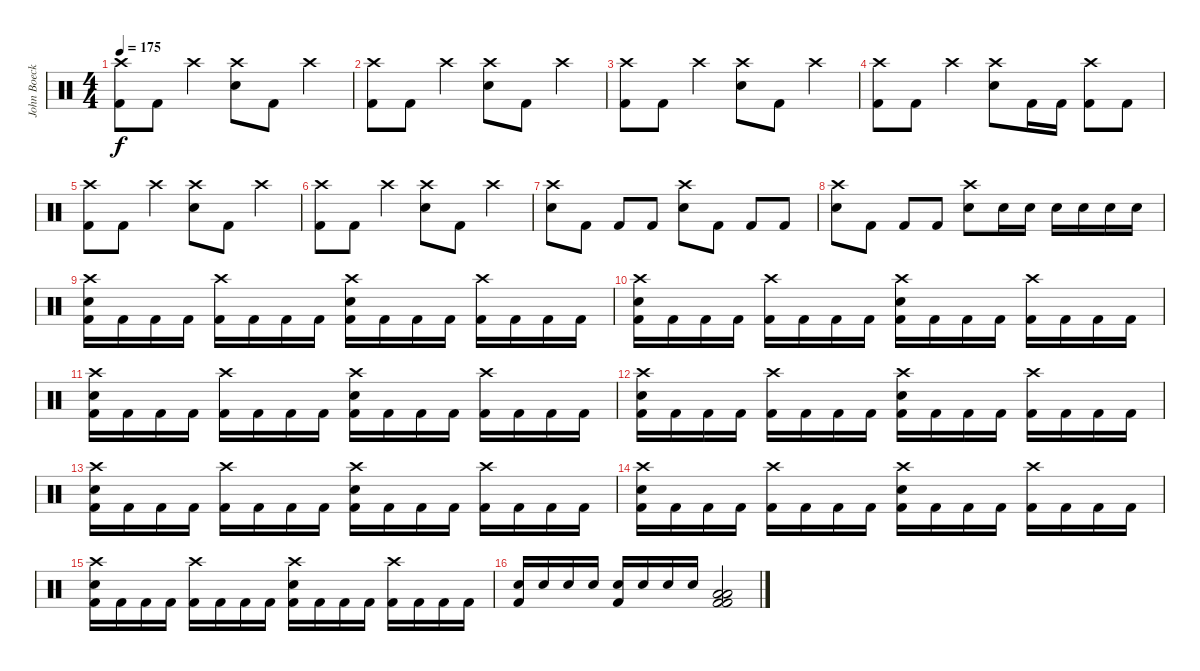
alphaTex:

\track ("John Boecklin (Drums)" "John Boeck") {instrument percussion}
\staff {score}
\articulation defaults
\ts (4 4)
\tempo 175
\clef neutral
\ks c
("Crash high (hit)" "Kick (hit) 2").8{dy f} "Kick (hit) 2".8 "Crash high (hit)".4 ("Crash high (hit)" "Snare (hit) 2").8 "Kick (hit) 2".8 "Crash high (hit)".4 |
("Crash high (hit)" "Kick (hit) 2").8 "Kick (hit) 2".8 "Crash high (hit)".4 ("Crash high (hit)" "Snare (hit) 2").8 "Kick (hit) 2".8 "Crash high (hit)".4 |
("Crash high (hit)" "Kick (hit) 2").8 "Kick (hit) 2".8 "Crash high (hit)".4 ("Crash high (hit)" "Snare (hit) 2").8 "Kick (hit) 2".8 "Crash high (hit)".4 |
("Crash high (hit)" "Kick (hit) 2").8 "Kick (hit) 2".8 "Crash high (hit)".4 ("Crash high (hit)" "Snare (hit) 2").8 "Kick (hit) 2".16 "Kick (hit) 2".16 ("Crash high (hit)" "Kick (hit) 2").8 "Kick (hit) 2".8 |
("Crash high (hit)" "Kick (hit) 2").8 "Kick (hit) 2".8 "Crash high (hit)".4 ("Crash high (hit)" "Snare (hit) 2").8 "Kick (hit) 2".8 "Crash high (hit)".4 |
("Crash high (hit)" "Kick (hit) 2").8 "Kick (hit) 2".8 "Crash high (hit)".4 ("Crash high (hit)" "Snare (hit) 2").8 "Kick (hit) 2".8 "Crash high (hit)".4 |
("Crash high (hit)" "Snare (hit) 2").8 "Kick (hit) 2".8 "Kick (hit) 2".8 "Kick (hit) 2".8 ("Crash high (hit)" "Snare (hit) 2").8 "Kick (hit) 2".8 "Kick (hit) 2".8 "Kick (hit) 2".8 |
("Crash high (hit)" "Snare (hit) 2").8 "Kick (hit) 2".8 "Kick (hit) 2".8 "Kick (hit) 2".8 ("Crash high (hit)" "Snare (hit) 2").8 "Snare (hit) 2".16 "Snare (hit) 2".16 "Snare (hit) 2".16 "Snare (hit) 2".16 "Snare (hit) 2".16 "Snare (hit) 2".16 |
("Crash high (hit)" "Snare (hit) 2" "Kick (hit) 2").16 "Kick (hit) 2".16 "Kick (hit) 2".16 "Kick (hit) 2".16 ("Crash high (hit)" "Kick (hit) 2").16 "Kick (hit) 2".16 "Kick (hit) 2".16 "Kick (hit) 2".16 ("Crash high (hit)" "Snare (hit) 2" "Kick (hit) 2").16 "Kick (hit) 2".16 "Kick (hit) 2".16 "Kick (hit) 2".16 ("Crash high (hit)" "Kick (hit) 2").16 "Kick (hit) 2".16 "Kick (hit) 2".16 "Kick (hit) 2".16 |
("Crash high (hit)" "Snare (hit) 2" "Kick (hit) 2").16 "Kick (hit) 2".16 "Kick (hit) 2".16 "Kick (hit) 2".16 ("Crash high (hit)" "Kick (hit) 2").16 "Kick (hit) 2".16 "Kick (hit) 2".16 "Kick (hit) 2".16 ("Crash high (hit)" "Snare (hit) 2" "Kick (hit) 2").16 "Kick (hit) 2".16 "Kick (hit) 2".16 "Kick (hit) 2".16 ("Crash high (hit)" "Kick (hit) 2").16 "Kick (hit) 2".16 "Kick (hit) 2".16 "Kick (hit) 2".16 |
("Crash high (hit)" "Snare (hit) 2" "Kick (hit) 2").16 "Kick (hit) 2".16 "Kick (hit) 2".16 "Kick (hit) 2".16 ("Crash high (hit)" "Kick (hit) 2").16 "Kick (hit) 2".16 "Kick (hit) 2".16 "Kick (hit) 2".16 ("Crash high (hit)" "Snare (hit) 2" "Kick (hit) 2").16 "Kick (hit) 2".16 "Kick (hit) 2".16 "Kick (hit) 2".16 ("Crash high (hit)" "Kick (hit) 2").16 "Kick (hit) 2".16 "Kick (hit) 2".16 "Kick (hit) 2".16 |
("Crash high (hit)" "Snare (hit) 2" "Kick (hit) 2").16 "Kick (hit) 2".16 "Kick (hit) 2".16 "Kick (hit) 2".16 ("Crash high (hit)" "Kick (hit) 2").16 "Kick (hit) 2".16 "Kick (hit) 2".16 "Kick (hit) 2".16 ("Crash high (hit)" "Snare (hit) 2" "Kick (hit) 2").16 "Kick (hit) 2".16 "Kick (hit) 2".16 "Kick (hit) 2".16 ("Crash high (hit)" "Kick (hit) 2").16 "Kick (hit) 2".16 "Kick (hit) 2".16 "Kick (hit) 2".16 |
("Crash high (hit)" "Snare (hit) 2" "Kick (hit) 2").16 "Kick (hit) 2".16 "Kick (hit) 2".16 "Kick (hit) 2".16 ("Crash high (hit)" "Kick (hit) 2").16 "Kick (hit) 2".16 "Kick (hit) 2".16 "Kick (hit) 2".16 ("Crash high (hit)" "Snare (hit) 2" "Kick (hit) 2").16 "Kick (hit) 2".16 "Kick (hit) 2".16 "Kick (hit) 2".16 ("Crash high (hit)" "Kick (hit) 2").16 "Kick (hit) 2".16 "Kick (hit) 2".16 "Kick (hit) 2".16 |
("Crash high (hit)" "Snare (hit) 2" "Kick (hit) 2").16 "Kick (hit) 2".16 "Kick (hit) 2".16 "Kick (hit) 2".16 ("Crash high (hit)" "Kick (hit) 2").16 "Kick (hit) 2".16 "Kick (hit) 2".16 "Kick (hit) 2".16 ("Crash high (hit)" "Snare (hit) 2" "Kick (hit) 2").16 "Kick (hit) 2".16 "Kick (hit) 2".16 "Kick (hit) 2".16 ("Crash high (hit)" "Kick (hit) 2").16 "Kick (hit) 2".16 "Kick (hit) 2".16 "Kick (hit) 2".16 |
("Crash high (hit)" "Snare (hit) 2" "Kick (hit) 2").16 "Kick (hit) 2".16 "Kick (hit) 2".16 "Kick (hit) 2".16 ("Crash high (hit)" "Kick (hit) 2").16 "Kick (hit) 2".16 "Kick (hit) 2".16 "Kick (hit) 2".16 ("Crash high (hit)" "Snare (hit) 2" "Kick (hit) 2").16 "Kick (hit) 2".16 "Kick (hit) 2".16 "Kick (hit) 2".16 ("Crash high (hit)" "Kick (hit) 2").16 "Kick (hit) 2".16 "Kick (hit) 2".16 "Kick (hit) 2".16 |
("Kick (hit) 2" "Snare (hit) 2").16 "Snare (hit) 2".16 "Snare (hit) 2".16 "Snare (hit) 2".16 ("Kick (hit) 2" "Snare (hit) 2").16 "Snare (hit) 2".16 "Snare (hit) 2".16 "Snare (hit) 2".16 ("Low Floor Tom (hit)" "Low Floor Tom (hit)" "Kick (hit) 2" "Kick (hit) 2").2
